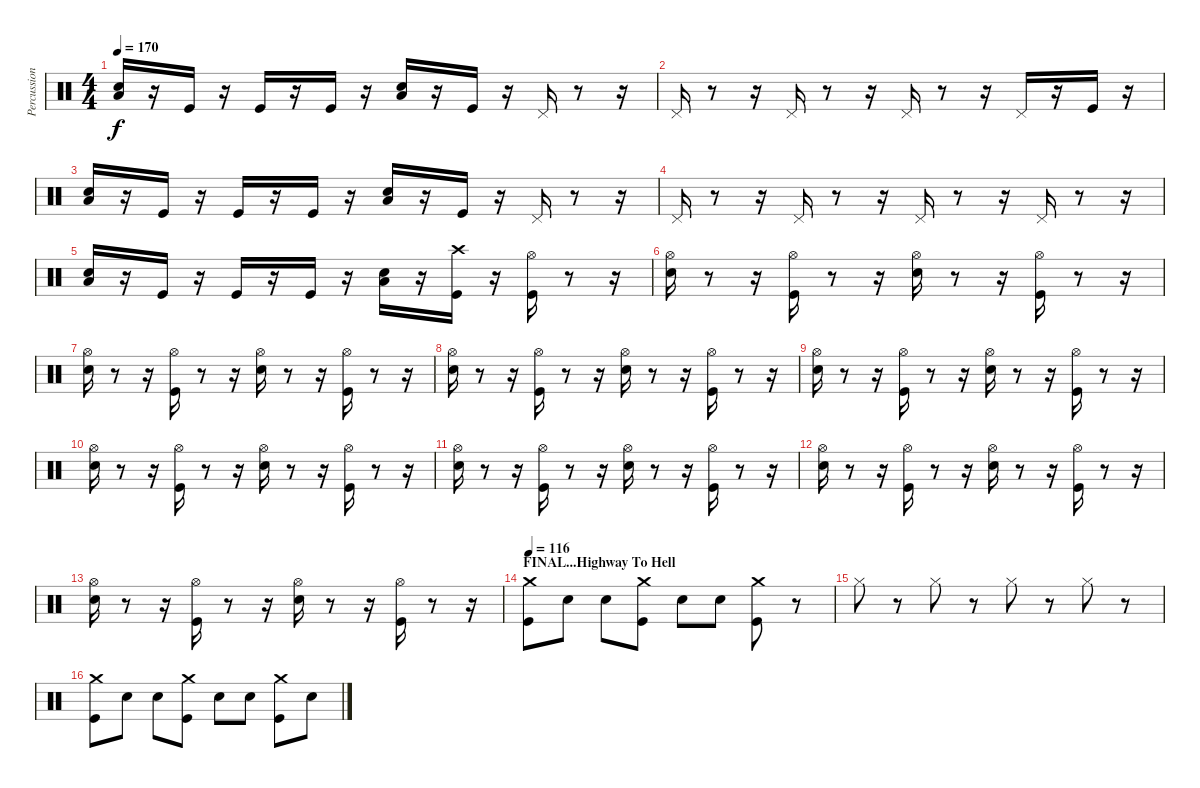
\track ("Percussions" "Percussion") {instrument percussion}
\staff {score}
\articulation defaults
\ts (4 4)
\tempo 170
\clef neutral
\ks c
("Snare (hit) 2" "Low Tom (hit)").16{dy f} r.16 "Kick (hit)".16 r.16 "Kick (hit)".16 r.16 "Kick (hit)".16 r.16 ("Snare (hit) 2" "Low Tom (hit)").16 r.16 "Kick (hit)".16 r.16 "Pedal Hi-Hat (hit)".16 r.8 r.16 |
"Pedal Hi-Hat (hit)".16 r.8 r.16 "Pedal Hi-Hat (hit)".16 r.8 r.16 "Pedal Hi-Hat (hit)".16 r.8 r.16 "Pedal Hi-Hat (hit)".16 r.16 "Kick (hit)".16 r.16 |
("Snare (hit) 2" "Low Tom (hit)").16 r.16 "Kick (hit)".16 r.16 "Kick (hit)".16 r.16 "Kick (hit)".16 r.16 ("Snare (hit) 2" "Low Tom (hit)").16 r.16 "Kick (hit)".16 r.16 "Pedal Hi-Hat (hit)".16 r.8 r.16 |
"Pedal Hi-Hat (hit)".16 r.8 r.16 "Pedal Hi-Hat (hit)".16 r.8 r.16 "Pedal Hi-Hat (hit)".16 r.8 r.16 "Pedal Hi-Hat (hit)".16 r.8 r.16 |
("Snare (hit) 2" "Low Tom (hit)").16 r.16 "Kick (hit)".16 r.16 "Kick (hit)".16 r.16 "Kick (hit)".16 r.16 ("Snare (hit) 2" "Low Tom (hit)").16 r.16 ("Kick (hit)" "Crash high (hit)").16 r.16 ("Hi-Hat (open)" "Kick (hit)").16 r.8 r.16 |
("Hi-Hat (open)" "Snare (hit) 2").16 r.8 r.16 ("Kick (hit)" "Hi-Hat (open)").16 r.8 r.16 ("Snare (hit) 2" "Hi-Hat (open)").16 r.8 r.16 ("Kick (hit)" "Hi-Hat (open)").16 r.8 r.16 |
("Snare (hit) 2" "Hi-Hat (open)").16 r.8 r.16 ("Kick (hit)" "Hi-Hat (open)").16 r.8 r.16 ("Snare (hit) 2" "Hi-Hat (open)").16 r.8 r.16 ("Kick (hit)" "Hi-Hat (open)").16 r.8 r.16 |
("Snare (hit) 2" "Hi-Hat (open)").16 r.8 r.16 ("Kick (hit)" "Hi-Hat (open)").16 r.8 r.16 ("Snare (hit) 2" "Hi-Hat (open)").16 r.8 r.16 ("Kick (hit)" "Hi-Hat (open)").16 r.8 r.16 |
("Snare (hit) 2" "Hi-Hat (open)").16 r.8 r.16 ("Kick (hit)" "Hi-Hat (open)").16 r.8 r.16 ("Snare (hit) 2" "Hi-Hat (open)").16 r.8 r.16 ("Kick (hit)" "Hi-Hat (open)").16 r.8 r.16 |
("Snare (hit) 2" "Hi-Hat (open)").16 r.8 r.16 ("Kick (hit)" "Hi-Hat (open)").16 r.8 r.16 ("Snare (hit) 2" "Hi-Hat (open)").16 r.8 r.16 ("Kick (hit)" "Hi-Hat (open)").16 r.8 r.16 |
("Snare (hit) 2" "Hi-Hat (open)").16 r.8 r.16 ("Kick (hit)" "Hi-Hat (open)").16 r.8 r.16 ("Snare (hit) 2" "Hi-Hat (open)").16 r.8 r.16 ("Kick (hit)" "Hi-Hat (open)").16 r.8 r.16 |
("Snare (hit) 2" "Hi-Hat (open)").16 r.8 r.16 ("Kick (hit)" "Hi-Hat (open)").16 r.8 r.16 ("Snare (hit) 2" "Hi-Hat (open)").16 r.8 r.16 ("Kick (hit)" "Hi-Hat (open)").16 r.8 r.16 |
("Snare (hit) 2" "Hi-Hat (open)").16 r.8 r.16 ("Kick (hit)" "Hi-Hat (open)").16 r.8 r.16 ("Snare (hit) 2" "Hi-Hat (open)").16 r.8 r.16 ("Kick (hit)" "Hi-Hat (open)").16 r.8 r.16 |
\section ("" "FINAL...Highway To Hell")
\tempo 116
("Crash medium (hit)" "Kick (hit)").8 "Electric Snare (hit)".8 "Electric Snare (hit)".8 ("Crash medium (hit)" "Kick (hit)").8 "Electric Snare (hit)".8 "Electric Snare (hit)".8 ("Crash medium (hit)" "Kick (hit)").8 r.8 |
"Hi-Hat (closed)".8 r.8 "Hi-Hat (closed)".8 r.8 "Hi-Hat (closed)".8 r.8 "Hi-Hat (closed)".8 r.8 |
("Crash medium (hit)" "Kick (hit)").8 "Electric Snare (hit)".8 "Electric Snare (hit)".8 ("Crash medium (hit)" "Kick (hit)").8 "Electric Snare (hit)".8 "Electric Snare (hit)".8 ("Crash medium (hit)" "Kick (hit)").8 "Electric Snare (hit)".8
